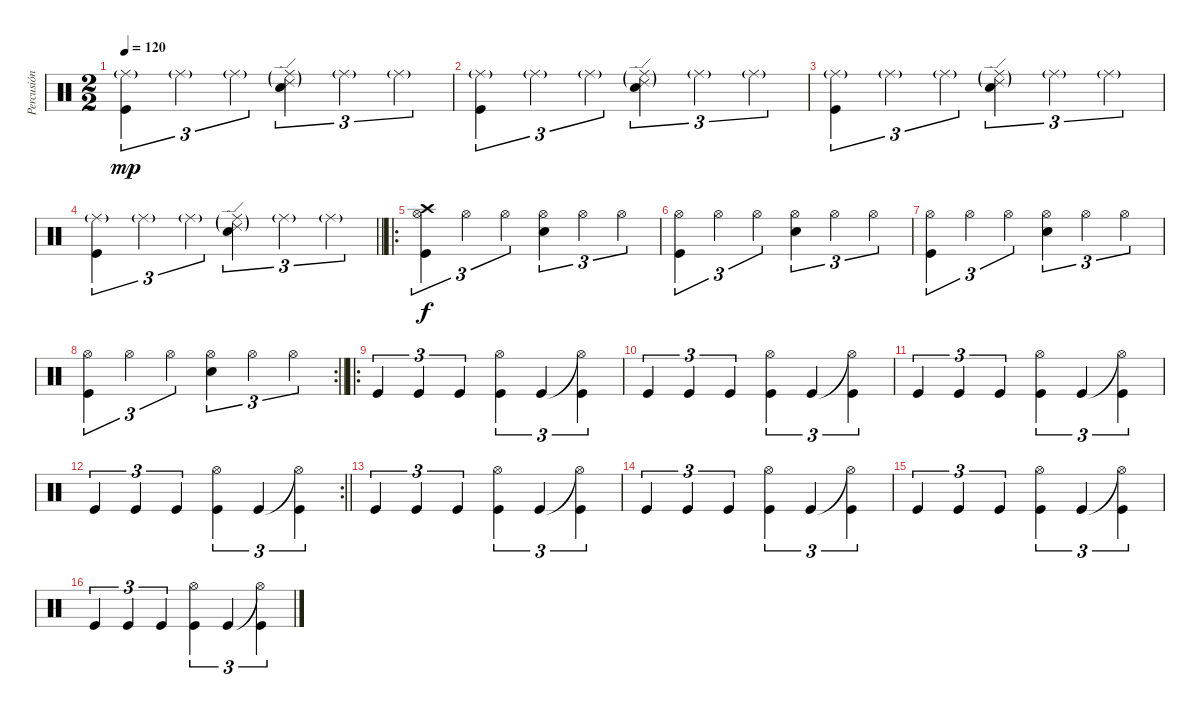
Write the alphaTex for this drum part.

\track ("Percusión" "Percusión") {instrument percussion}
\staff {score}
\articulation defaults
\ts (2 2)
\tempo 120
\clef neutral
\ks c
("Ride (middle)"{g} "Kick (hit)").4{tu (3 2) dy mp} "Ride (middle)"{g}.4{tu (3 2)} "Ride (middle)"{g}.4{tu (3 2)} ("Ride (middle)"{g} "Ride (edge) 2"{g} "Electric Snare (hit)").4{tu (3 2)} "Ride (middle)"{g}.4{tu (3 2)} "Ride (middle)"{g}.4{tu (3 2)} |
("Ride (middle)"{g} "Kick (hit)").4{tu (3 2)} "Ride (middle)"{g}.4{tu (3 2)} "Ride (middle)"{g}.4{tu (3 2)} ("Ride (middle)"{g} "Ride (edge) 2"{g} "Electric Snare (hit)").4{tu (3 2)} "Ride (middle)"{g}.4{tu (3 2)} "Ride (middle)"{g}.4{tu (3 2)} |
("Ride (middle)"{g} "Kick (hit)").4{tu (3 2)} "Ride (middle)"{g}.4{tu (3 2)} "Ride (middle)"{g}.4{tu (3 2)} ("Ride (middle)"{g} "Ride (edge) 2"{g} "Electric Snare (hit)").4{tu (3 2)} "Ride (middle)"{g}.4{tu (3 2)} "Ride (middle)"{g}.4{tu (3 2)} |
\barLineRight lightlight
("Ride (middle)"{g} "Kick (hit)").4{tu (3 2)} "Ride (middle)"{g}.4{tu (3 2)} "Ride (middle)"{g}.4{tu (3 2)} ("Ride (middle)"{g} "Ride (edge) 2"{g} "Electric Snare (hit)").4{tu (3 2)} "Ride (middle)"{g}.4{tu (3 2)} "Ride (middle)"{g}.4{tu (3 2)} |
\ro
("Crash high (hit)" "Hi-Hat (open)" "Kick (hit)").4{tu (3 2) dy f} "Hi-Hat (open)".4{tu (3 2)} "Hi-Hat (open)".4{tu (3 2)} ("Hi-Hat (open)" "Electric Snare (hit)").4{tu (3 2)} "Hi-Hat (open)".4{tu (3 2)} "Hi-Hat (open)".4{tu (3 2)} |
("Hi-Hat (open)" "Kick (hit)").4{tu (3 2)} "Hi-Hat (open)".4{tu (3 2)} "Hi-Hat (open)".4{tu (3 2)} ("Hi-Hat (open)" "Electric Snare (hit)").4{tu (3 2)} "Hi-Hat (open)".4{tu (3 2)} "Hi-Hat (open)".4{tu (3 2)} |
("Hi-Hat (open)" "Kick (hit)").4{tu (3 2)} "Hi-Hat (open)".4{tu (3 2)} "Hi-Hat (open)".4{tu (3 2)} ("Hi-Hat (open)" "Electric Snare (hit)").4{tu (3 2)} "Hi-Hat (open)".4{tu (3 2)} "Hi-Hat (open)".4{tu (3 2)} |
\rc 2
\barLineRight lightlight
("Hi-Hat (open)" "Kick (hit)").4{tu (3 2)} "Hi-Hat (open)".4{tu (3 2)} "Hi-Hat (open)".4{tu (3 2)} ("Hi-Hat (open)" "Electric Snare (hit)").4{tu (3 2)} "Hi-Hat (open)".4{tu (3 2)} "Hi-Hat (open)".4{tu (3 2)} |
\ro "Kick (hit)".4{tu (3 2)} "Kick (hit)".4{tu (3 2)} "Kick (hit)".4{tu (3 2)}
("Hi-Hat (open)" "Kick (hit)").4{tu (3 2)} "Kick (hit)".4{tu (3 2)} ("Hi-Hat (open)"{t} "Kick (hit)").4{tu (3 2)} |
"Kick (hit)".4{tu (3 2)} "Kick (hit)".4{tu (3 2)} "Kick (hit)".4{tu (3 2)} ("Hi-Hat (open)" "Kick (hit)").4{tu (3 2)} "Kick (hit)".4{tu (3 2)} ("Hi-Hat (open)"{t} "Kick (hit)").4{tu (3 2)} |
"Kick (hit)".4{tu (3 2)} "Kick (hit)".4{tu (3 2)} "Kick (hit)".4{tu (3 2)} ("Hi-Hat (open)" "Kick (hit)").4{tu (3 2)} "Kick (hit)".4{tu (3 2)} ("Hi-Hat (open)"{t} "Kick (hit)").4{tu (3 2)} |
\rc 2
\barLineRight lightlight "Kick (hit)".4{tu (3 2)} "Kick (hit)".4{tu (3 2)} "Kick (hit)".4{tu (3 2)}
("Hi-Hat (open)" "Kick (hit)").4{tu (3 2)} "Kick (hit)".4{tu (3 2)} ("Hi-Hat (open)"{t} "Kick (hit)").4{tu (3 2)} |
"Kick (hit)".4{tu (3 2)} "Kick (hit)".4{tu (3 2)} "Kick (hit)".4{tu (3 2)} ("Hi-Hat (open)" "Kick (hit)").4{tu (3 2)} "Kick (hit)".4{tu (3 2)} ("Hi-Hat (open)"{t} "Kick (hit)").4{tu (3 2)} |
"Kick (hit)".4{tu (3 2)} "Kick (hit)".4{tu (3 2)} "Kick (hit)".4{tu (3 2)} ("Hi-Hat (open)" "Kick (hit)").4{tu (3 2)} "Kick (hit)".4{tu (3 2)} ("Hi-Hat (open)"{t} "Kick (hit)").4{tu (3 2)} |
"Kick (hit)".4{tu (3 2)} "Kick (hit)".4{tu (3 2)} "Kick (hit)".4{tu (3 2)} ("Hi-Hat (open)" "Kick (hit)").4{tu (3 2)} "Kick (hit)".4{tu (3 2)} ("Hi-Hat (open)"{t} "Kick (hit)").4{tu (3 2)} |
"Kick (hit)".4{tu (3 2)} "Kick (hit)".4{tu (3 2)} "Kick (hit)".4{tu (3 2)} ("Hi-Hat (open)" "Kick (hit)").4{tu (3 2)} "Kick (hit)".4{tu (3 2)} ("Hi-Hat (open)"{t} "Kick (hit)").4{tu (3 2)}
